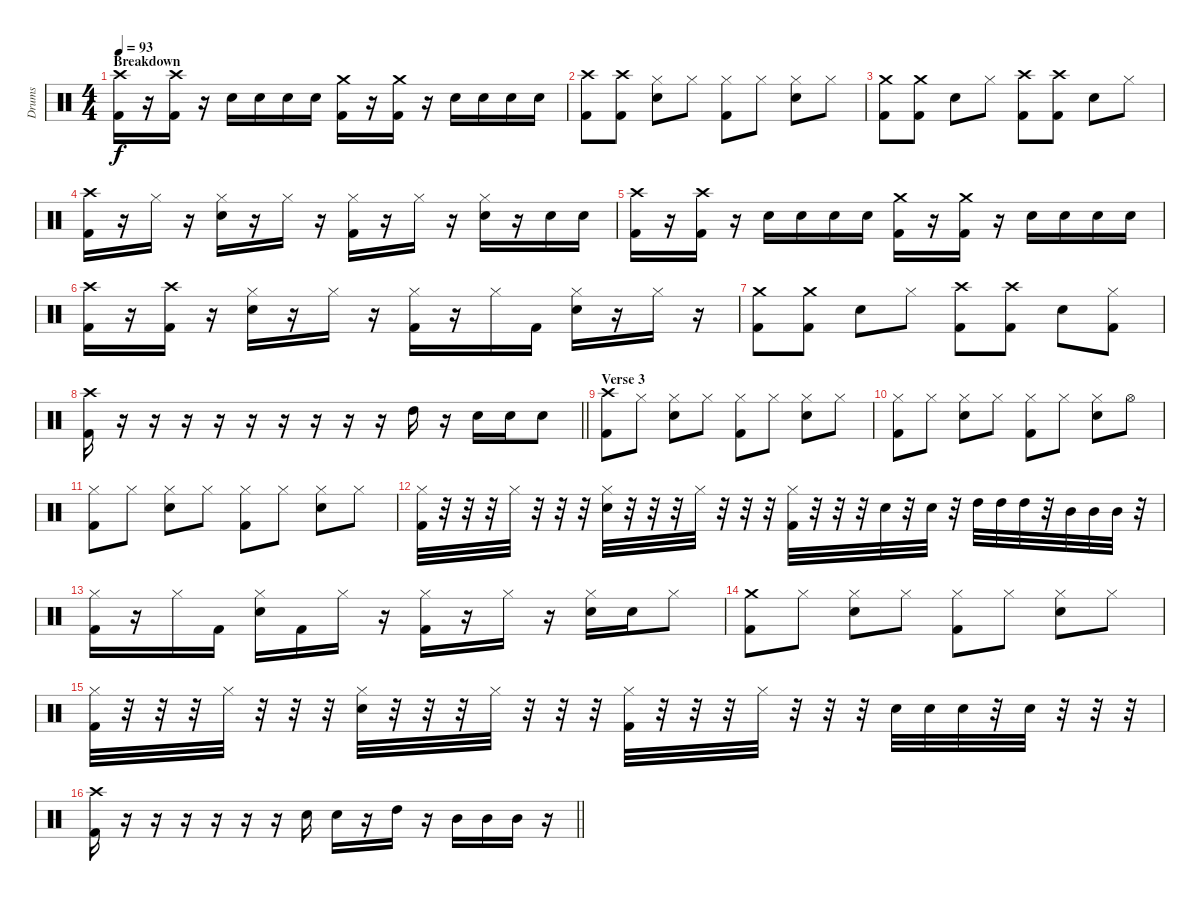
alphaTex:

\track ("Drums" "Drums") {instrument percussion}
\staff {score}
\articulation defaults
\ts (4 4)
\section ("" "Breakdown")
\tempo 93
\clef neutral
\ks c
("Crash high (hit)" "Kick (hit) 2").16{dy f} r.16 ("Crash high (hit)" "Kick (hit) 2").16 r.16 "Snare (hit) 2".16 "Snare (hit) 2".16 "Snare (hit) 2".16 "Snare (hit) 2".16 ("Crash medium (hit)" "Kick (hit) 2").16 r.16 ("Crash medium (hit)" "Kick (hit) 2").16 r.16 "Snare (hit) 2".16 "Snare (hit) 2".16 "Snare (hit) 2".16 "Snare (hit) 2".16 |
("Crash high (hit)" "Kick (hit) 2").8 ("Crash high (hit)" "Kick (hit) 2").8 ("Hi-Hat (closed)" "Snare (hit) 2").8 "Hi-Hat (closed)".8 ("Hi-Hat (closed)" "Kick (hit) 2").8 "Hi-Hat (closed)".8 ("Hi-Hat (closed)" "Snare (hit) 2").8 "Hi-Hat (closed)".8 |
("Crash medium (hit)" "Kick (hit) 2").8 ("Crash medium (hit)" "Kick (hit) 2").8 "Snare (hit) 2".8 "Hi-Hat (closed)".8 ("Crash high (hit)" "Kick (hit) 2").8 ("Crash high (hit)" "Kick (hit) 2").8 "Snare (hit) 2".8 "Hi-Hat (closed)".8 |
("Crash high (hit)" "Kick (hit) 2").16 r.16 "Hi-Hat (closed)".16 r.16 ("Hi-Hat (closed)" "Snare (hit) 2").16 r.16 "Hi-Hat (closed)".16 r.16 ("Hi-Hat (closed)" "Kick (hit) 2").16 r.16 "Hi-Hat (closed)".16 r.16 ("Hi-Hat (closed)" "Snare (hit) 2").16 r.16 "Snare (hit) 2".16 "Snare (hit) 2".16 |
("Crash high (hit)" "Kick (hit) 2").16 r.16 ("Crash high (hit)" "Kick (hit) 2").16 r.16 "Snare (hit) 2".16 "Snare (hit) 2".16 "Snare (hit) 2".16 "Snare (hit) 2".16 ("Crash medium (hit)" "Kick (hit) 2").16 r.16 ("Crash medium (hit)" "Kick (hit) 2").16 r.16 "Snare (hit) 2".16 "Snare (hit) 2".16 "Snare (hit) 2".16 "Snare (hit) 2".16 |
("Crash high (hit)" "Kick (hit) 2").16 r.16 ("Crash high (hit)" "Kick (hit) 2").16 r.16 ("Hi-Hat (closed)" "Snare (hit) 2").16 r.16 "Hi-Hat (closed)".16 r.16 ("Hi-Hat (closed)" "Kick (hit) 2").16 r.16 "Hi-Hat (closed)".16 "Kick (hit) 2".16 ("Hi-Hat (closed)" "Snare (hit) 2").16 r.16 "Hi-Hat (closed)".16 r.16 |
("Crash medium (hit)" "Kick (hit) 2").8 ("Crash medium (hit)" "Kick (hit) 2").8 "Snare (hit) 2".8 "Hi-Hat (closed)".8 ("Crash high (hit)" "Kick (hit) 2").8 ("Crash high (hit)" "Kick (hit) 2").8 "Snare (hit) 2".8 ("Hi-Hat (closed)" "Kick (hit) 2").8 |
\barLineRight lightlight
("Crash high (hit)" "Kick (hit) 2").16 r.16 r.16 r.16 r.16 r.16 r.16 r.16 r.16 r.16 "High Tom (hit)".16 r.16 "Snare (hit) 2".16 "Snare (hit) 2".16 "Snare (hit) 2".8 |
\section ("" "Verse 3")
("Crash high (hit)" "Kick (hit) 2").8 "Hi-Hat (closed)".8 ("Hi-Hat (closed)" "Snare (hit) 2").8 "Hi-Hat (closed)".8 ("Hi-Hat (closed)" "Kick (hit) 2").8 "Hi-Hat (closed)".8 ("Hi-Hat (closed)" "Snare (hit) 2").8 "Hi-Hat (closed)".8 |
("Hi-Hat (closed)" "Kick (hit) 2").8 "Hi-Hat (closed)".8 ("Hi-Hat (closed)" "Snare (hit) 2").8 "Hi-Hat (closed)".8 ("Hi-Hat (closed)" "Kick (hit) 2").8 "Hi-Hat (closed)".8 ("Hi-Hat (closed)" "Snare (hit) 2").8 "Hi-Hat (open)".8 |
("Hi-Hat (closed)" "Kick (hit) 2").8 "Hi-Hat (closed)".8 ("Hi-Hat (closed)" "Snare (hit) 2").8 "Hi-Hat (closed)".8 ("Hi-Hat (closed)" "Kick (hit) 2").8 "Hi-Hat (closed)".8 ("Hi-Hat (closed)" "Snare (hit) 2").8 "Hi-Hat (closed)".8 |
("Hi-Hat (closed)" "Kick (hit) 2").32 r.32 r.32 r.32 "Hi-Hat (closed)".32 r.32 r.32 r.32 ("Hi-Hat (closed)" "Snare (hit) 2").32 r.32 r.32 r.32 "Hi-Hat (closed)".32 r.32 r.32 r.32 ("Hi-Hat (closed)" "Kick (hit) 2").32 r.32 r.32 r.32 "Snare (hit) 2".32 r.32 "Snare (hit) 2".32 r.32 "High Tom (hit)".32 "High Tom (hit)".32 "High Tom (hit)".32 r.32 "Mid Tom (hit)".32 "Mid Tom (hit)".32 "Mid Tom (hit)".32 r.32 |
("Hi-Hat (closed)" "Kick (hit) 2").16 r.16 "Hi-Hat (closed)".16 "Kick (hit) 2".16 ("Hi-Hat (closed)" "Snare (hit) 2").16 "Kick (hit) 2".16 "Hi-Hat (closed)".16 r.16 ("Hi-Hat (closed)" "Kick (hit) 2").16 r.16 "Hi-Hat (closed)".16 r.16 ("Hi-Hat (closed)" "Snare (hit) 2").16 "Snare (hit) 2".16 "Hi-Hat (closed)".8 |
("Crash medium (hit)" "Kick (hit) 2").8 "Hi-Hat (closed)".8 ("Hi-Hat (closed)" "Snare (hit) 2").8 "Hi-Hat (closed)".8 ("Hi-Hat (closed)" "Kick (hit) 2").8 "Hi-Hat (closed)".8 ("Hi-Hat (closed)" "Snare (hit) 2").8 "Hi-Hat (closed)".8 |
("Hi-Hat (closed)" "Kick (hit) 2").32 r.32 r.32 r.32 "Hi-Hat (closed)".32 r.32 r.32 r.32 ("Hi-Hat (closed)" "Snare (hit) 2").32 r.32 r.32 r.32 "Hi-Hat (closed)".32 r.32 r.32 r.32 ("Hi-Hat (closed)" "Kick (hit) 2").32 r.32 r.32 r.32 "Hi-Hat (closed)".32 r.32 r.32 r.32 "Snare (hit) 2".32 "Snare (hit) 2".32 "Snare (hit) 2".32 r.32 "Snare (hit) 2".32 r.32 r.32 r.32 |
\barLineRight lightlight
("Crash high (hit)" "Kick (hit) 2").16 r.16 r.16 r.16 r.16 r.16 r.16 "Snare (hit) 2".16 "Snare (hit) 2".16 r.16 "High Tom (hit)".16 r.16 "Mid Tom (hit)".16 "Mid Tom (hit)".16 "Mid Tom (hit)".16 r.16
